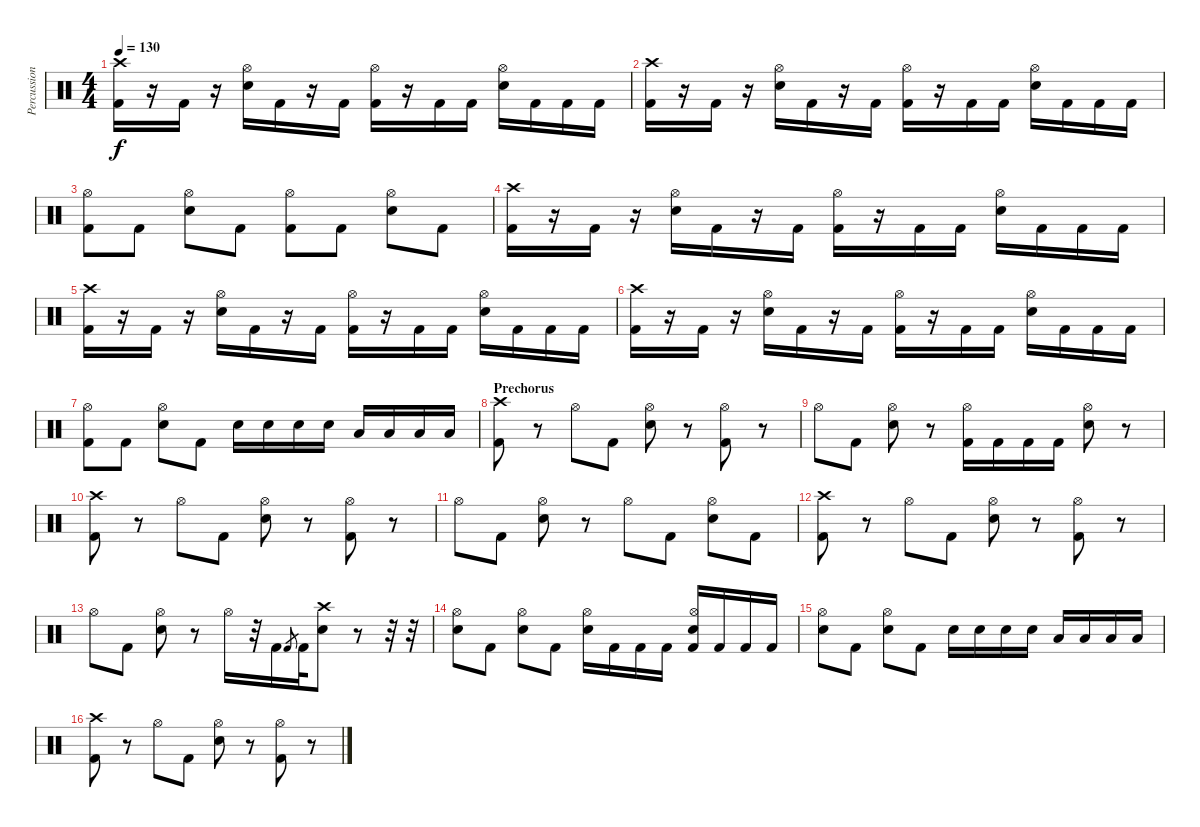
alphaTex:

\track ("Percussion" "Percussion") {instrument percussion}
\staff {score}
\articulation defaults
\ts (4 4)
\tempo 130
\clef neutral
\ks c
("Crash high (hit)" "Kick (hit) 2").16{dy f} r.16 "Kick (hit) 2".16 r.16 ("Hi-Hat (open)" "Snare (hit) 2").16 "Kick (hit) 2".16 r.16 "Kick (hit) 2".16 ("Hi-Hat (open)" "Kick (hit) 2").16 r.16 "Kick (hit) 2".16 "Kick (hit) 2".16 ("Hi-Hat (open)" "Snare (hit) 2").16 "Kick (hit) 2".16 "Kick (hit) 2".16 "Kick (hit) 2".16 |
("Crash high (hit)" "Kick (hit) 2").16 r.16 "Kick (hit) 2".16 r.16 ("Hi-Hat (open)" "Snare (hit) 2").16 "Kick (hit) 2".16 r.16 "Kick (hit) 2".16 ("Hi-Hat (open)" "Kick (hit) 2").16 r.16 "Kick (hit) 2".16 "Kick (hit) 2".16 ("Hi-Hat (open)" "Snare (hit) 2").16 "Kick (hit) 2".16 "Kick (hit) 2".16 "Kick (hit) 2".16 |
("Hi-Hat (open)" "Kick (hit) 2").8 "Kick (hit) 2".8 ("Hi-Hat (open)" "Snare (hit) 2").8 "Kick (hit) 2".8 ("Hi-Hat (open)" "Kick (hit) 2").8 "Kick (hit) 2".8 ("Hi-Hat (open)" "Snare (hit) 2").8 "Kick (hit) 2".8 |
("Crash high (hit)" "Kick (hit) 2").16 r.16 "Kick (hit) 2".16 r.16 ("Hi-Hat (open)" "Snare (hit) 2").16 "Kick (hit) 2".16 r.16 "Kick (hit) 2".16 ("Hi-Hat (open)" "Kick (hit) 2").16 r.16 "Kick (hit) 2".16 "Kick (hit) 2".16 ("Hi-Hat (open)" "Snare (hit) 2").16 "Kick (hit) 2".16 "Kick (hit) 2".16 "Kick (hit) 2".16 |
("Crash high (hit)" "Kick (hit) 2").16 r.16 "Kick (hit) 2".16 r.16 ("Hi-Hat (open)" "Snare (hit) 2").16 "Kick (hit) 2".16 r.16 "Kick (hit) 2".16 ("Hi-Hat (open)" "Kick (hit) 2").16 r.16 "Kick (hit) 2".16 "Kick (hit) 2".16 ("Hi-Hat (open)" "Snare (hit) 2").16 "Kick (hit) 2".16 "Kick (hit) 2".16 "Kick (hit) 2".16 |
("Crash high (hit)" "Kick (hit) 2").16 r.16 "Kick (hit) 2".16 r.16 ("Hi-Hat (open)" "Snare (hit) 2").16 "Kick (hit) 2".16 r.16 "Kick (hit) 2".16 ("Hi-Hat (open)" "Kick (hit) 2").16 r.16 "Kick (hit) 2".16 "Kick (hit) 2".16 ("Hi-Hat (open)" "Snare (hit) 2").16 "Kick (hit) 2".16 "Kick (hit) 2".16 "Kick (hit) 2".16 |
("Hi-Hat (open)" "Kick (hit) 2").8 "Kick (hit) 2".8 ("Hi-Hat (open)" "Snare (hit) 2").8 "Kick (hit) 2".8 "Snare (hit) 2".16 "Snare (hit) 2".16 "Snare (hit) 2".16 "Snare (hit) 2".16 "Low Tom (hit)".16 "Low Tom (hit)".16 "Low Tom (hit)".16 "Low Tom (hit)".16 |
\section ("" "Prechorus")
("Crash high (hit)" "Kick (hit) 2").8 r.8 "Hi-Hat (open)".8 "Kick (hit) 2".8 ("Hi-Hat (open)" "Snare (hit) 2").8 r.8 ("Hi-Hat (open)" "Kick (hit) 2").8 r.8 |
"Hi-Hat (open)".8 "Kick (hit) 2".8 ("Hi-Hat (open)" "Snare (hit) 2").8 r.8 ("Hi-Hat (open)" "Kick (hit) 2").16 "Kick (hit) 2".16 "Kick (hit) 2".16 "Kick (hit) 2".16 ("Hi-Hat (open)" "Snare (hit) 2").8 r.8 |
("Crash high (hit)" "Kick (hit) 2").8 r.8 "Hi-Hat (open)".8 "Kick (hit) 2".8 ("Hi-Hat (open)" "Snare (hit) 2").8 r.8 ("Hi-Hat (open)" "Kick (hit) 2").8 r.8 |
"Hi-Hat (open)".8 "Kick (hit) 2".8 ("Hi-Hat (open)" "Snare (hit) 2").8 r.8 "Hi-Hat (open)".8 "Kick (hit) 2".8 ("Hi-Hat (open)" "Snare (hit) 2").8 "Kick (hit) 2".8 |
("Crash high (hit)" "Kick (hit) 2").8 r.8 "Hi-Hat (open)".8 "Kick (hit) 2".8 ("Hi-Hat (open)" "Snare (hit) 2").8 r.8 ("Hi-Hat (open)" "Kick (hit) 2").8 r.8 |
"Hi-Hat (open)".8 "Kick (hit) 2".8 ("Hi-Hat (open)" "Snare (hit) 2").8 r.8 "Hi-Hat (open)".16 r.32 "Kick (hit) 2".16 "Kick (hit) 2".8{gr} "Kick (hit) 2".32 ("Crash high (hit)" "Snare (hit) 2").8 r.8 r.32 r.32 |
("Hi-Hat (open)" "Snare (hit) 2").8 "Kick (hit) 2".8 ("Hi-Hat (open)" "Snare (hit) 2").8 "Kick (hit) 2".8 ("Hi-Hat (open)" "Snare (hit) 2").16 "Kick (hit) 2".16 "Kick (hit) 2".16 "Kick (hit) 2".16 ("Hi-Hat (open)" "Snare (hit) 2" "Kick (hit) 2").16 "Kick (hit) 2".16 "Kick (hit) 2".16 "Kick (hit) 2".16 |
("Hi-Hat (open)" "Snare (hit) 2").8 "Kick (hit) 2".8 ("Hi-Hat (open)" "Snare (hit) 2").8 "Kick (hit) 2".8 "Snare (hit) 2".16 "Snare (hit) 2".16 "Snare (hit) 2".16 "Snare (hit) 2".16 "Low Tom (hit)".16 "Low Tom (hit)".16 "Low Tom (hit)".16 "Low Tom (hit)".16 |
("Crash high (hit)" "Kick (hit) 2").8 r.8 "Hi-Hat (open)".8 "Kick (hit) 2".8 ("Hi-Hat (open)" "Snare (hit) 2").8 r.8 ("Hi-Hat (open)" "Kick (hit) 2").8 r.8
